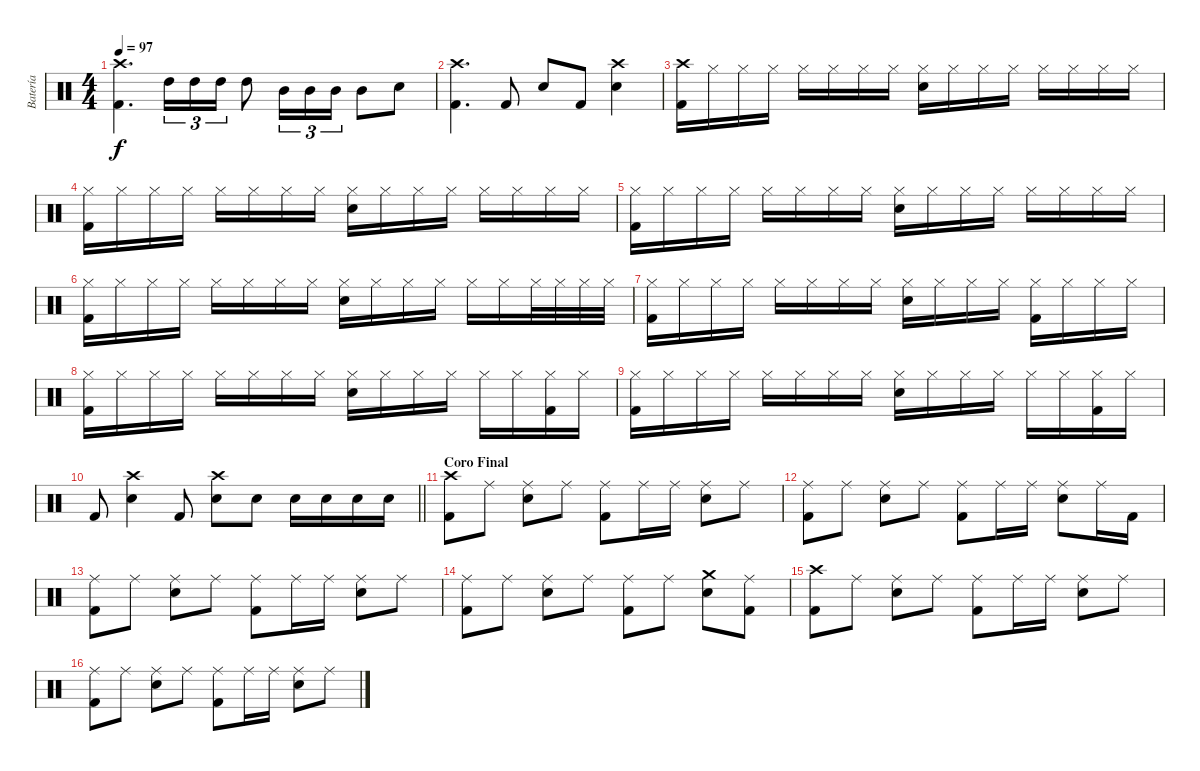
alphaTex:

\track ("Batería" "Batería") {instrument percussion}
\staff {score}
\articulation defaults
\ts (4 4)
\tempo 97
\clef neutral
\ks c
("Crash high (hit)" "Kick (hit) 2").4{d dy f} "High Tom (hit)".16{tu (3 2)} "High Tom (hit)".16{tu (3 2)} "High Tom (hit)".16{tu (3 2)} "High Tom (hit)".8 "Mid Tom (hit)".16{tu (3 2)} "Mid Tom (hit)".16{tu (3 2)} "Mid Tom (hit)".16{tu (3 2)} "Mid Tom (hit)".8 "Snare (hit) 2".8 |
("Kick (hit) 2" "Crash high (hit)").4{d} "Kick (hit) 2".8 "Snare (hit) 2".8 "Kick (hit) 2".8 ("Snare (hit) 2" "Crash high (hit)").4 |
("Crash high (hit)" "Kick (hit) 2").16 "Hi-Hat (closed)".16 "Hi-Hat (closed)".16 "Hi-Hat (closed)".16 "Hi-Hat (closed)".16 "Hi-Hat (closed)".16 "Hi-Hat (closed)".16 "Hi-Hat (closed)".16 ("Hi-Hat (closed)" "Snare (hit) 2").16 "Hi-Hat (closed)".16 "Hi-Hat (closed)".16 "Hi-Hat (closed)".16 "Hi-Hat (closed)".16 "Hi-Hat (closed)".16 "Hi-Hat (closed)".16 "Hi-Hat (closed)".16 |
("Hi-Hat (closed)" "Kick (hit) 2").16 "Hi-Hat (closed)".16 "Hi-Hat (closed)".16 "Hi-Hat (closed)".16 "Hi-Hat (closed)".16 "Hi-Hat (closed)".16 "Hi-Hat (closed)".16 "Hi-Hat (closed)".16 ("Hi-Hat (closed)" "Snare (hit) 2").16 "Hi-Hat (closed)".16 "Hi-Hat (closed)".16 "Hi-Hat (closed)".16 "Hi-Hat (closed)".16 "Hi-Hat (closed)".16 "Hi-Hat (closed)".16 "Hi-Hat (closed)".16 |
("Hi-Hat (closed)" "Kick (hit) 2").16 "Hi-Hat (closed)".16 "Hi-Hat (closed)".16 "Hi-Hat (closed)".16 "Hi-Hat (closed)".16 "Hi-Hat (closed)".16 "Hi-Hat (closed)".16 "Hi-Hat (closed)".16 ("Hi-Hat (closed)" "Snare (hit) 2").16 "Hi-Hat (closed)".16 "Hi-Hat (closed)".16 "Hi-Hat (closed)".16 "Hi-Hat (closed)".16 "Hi-Hat (closed)".16 "Hi-Hat (closed)".16 "Hi-Hat (closed)".16 |
("Hi-Hat (closed)" "Kick (hit) 2").16 "Hi-Hat (closed)".16 "Hi-Hat (closed)".16 "Hi-Hat (closed)".16 "Hi-Hat (closed)".16 "Hi-Hat (closed)".16 "Hi-Hat (closed)".16 "Hi-Hat (closed)".16 ("Hi-Hat (closed)" "Snare (hit) 2").16 "Hi-Hat (closed)".16 "Hi-Hat (closed)".16 "Hi-Hat (closed)".16 "Hi-Hat (closed)".16 "Hi-Hat (closed)".16 "Hi-Hat (closed)".32 "Hi-Hat (closed)".32 "Hi-Hat (closed)".32 "Hi-Hat (closed)".32 |
("Hi-Hat (closed)" "Kick (hit) 2").16 "Hi-Hat (closed)".16 "Hi-Hat (closed)".16 "Hi-Hat (closed)".16 "Hi-Hat (closed)".16 "Hi-Hat (closed)".16 "Hi-Hat (closed)".16 "Hi-Hat (closed)".16 ("Hi-Hat (closed)" "Snare (hit) 2").16 "Hi-Hat (closed)".16 "Hi-Hat (closed)".16 "Hi-Hat (closed)".16 ("Hi-Hat (closed)" "Kick (hit) 2").16 "Hi-Hat (closed)".16 "Hi-Hat (closed)".16 "Hi-Hat (closed)".16 |
("Hi-Hat (closed)" "Kick (hit) 2").16 "Hi-Hat (closed)".16 "Hi-Hat (closed)".16 "Hi-Hat (closed)".16 "Hi-Hat (closed)".16 "Hi-Hat (closed)".16 "Hi-Hat (closed)".16 "Hi-Hat (closed)".16 ("Hi-Hat (closed)" "Snare (hit) 2").16 "Hi-Hat (closed)".16 "Hi-Hat (closed)".16 "Hi-Hat (closed)".16 "Hi-Hat (closed)".16 "Hi-Hat (closed)".16 ("Hi-Hat (closed)" "Kick (hit) 2").16 "Hi-Hat (closed)".16 |
("Hi-Hat (closed)" "Kick (hit) 2").16 "Hi-Hat (closed)".16 "Hi-Hat (closed)".16 "Hi-Hat (closed)".16 "Hi-Hat (closed)".16 "Hi-Hat (closed)".16 "Hi-Hat (closed)".16 "Hi-Hat (closed)".16 ("Hi-Hat (closed)" "Snare (hit) 2").16 "Hi-Hat (closed)".16 "Hi-Hat (closed)".16 "Hi-Hat (closed)".16 "Hi-Hat (closed)".16 "Hi-Hat (closed)".16 ("Hi-Hat (closed)" "Kick (hit) 2").16 "Hi-Hat (closed)".16 |
\barLineRight lightlight "Kick (hit) 2".8
("Crash high (hit)" "Snare (hit) 2").4 "Kick (hit) 2".8 ("Crash high (hit)" "Snare (hit) 2").8 "Snare (hit) 2".8 "Snare (hit) 2".16 "Snare (hit) 2".16 "Snare (hit) 2".16 "Snare (hit) 2".16 |
\section ("" "Coro Final")
("Crash high (hit)" "Kick (hit) 2").8 "Ride (middle)".8 ("Ride (middle)" "Snare (hit) 2").8 "Ride (middle)".8 ("Ride (middle)" "Kick (hit) 2").8 "Ride (middle)".16 "Ride (middle)".16 ("Ride (middle)" "Snare (hit) 2").8 "Ride (middle)".8 |
("Ride (middle)" "Kick (hit) 2").8 "Ride (middle)".8 ("Ride (middle)" "Snare (hit) 2").8 "Ride (middle)".8 ("Ride (middle)" "Kick (hit) 2").8 "Ride (middle)".16 "Ride (middle)".16 ("Ride (middle)" "Snare (hit) 2").8 "Ride (middle)".16 "Kick (hit) 2".16 |
("Ride (middle)" "Kick (hit) 2").8 "Ride (middle)".8 ("Ride (middle)" "Snare (hit) 2").8 "Ride (middle)".8 ("Ride (middle)" "Kick (hit) 2").8 "Ride (middle)".16 "Ride (middle)".16 ("Ride (middle)" "Snare (hit) 2").8 "Ride (middle)".8 |
("Ride (middle)" "Kick (hit) 2").8 "Ride (middle)".8 ("Ride (middle)" "Snare (hit) 2").8 "Ride (middle)".8 ("Ride (middle)" "Kick (hit) 2").8 "Ride (middle)".8 ("Crash medium (hit)" "Snare (hit) 2").8 ("Ride (middle)" "Kick (hit) 2").8 |
("Crash high (hit)" "Kick (hit) 2").8 "Ride (middle)".8 ("Ride (middle)" "Snare (hit) 2").8 "Ride (middle)".8 ("Ride (middle)" "Kick (hit) 2").8 "Ride (middle)".16 "Ride (middle)".16 ("Ride (middle)" "Snare (hit) 2").8 "Ride (middle)".8 |
("Ride (middle)" "Kick (hit) 2").8 "Ride (middle)".8 ("Ride (middle)" "Snare (hit) 2").8 "Ride (middle)".8 ("Ride (middle)" "Kick (hit) 2").8 "Ride (middle)".16 "Ride (middle)".16 ("Ride (middle)" "Snare (hit) 2").8 "Ride (middle)".8
